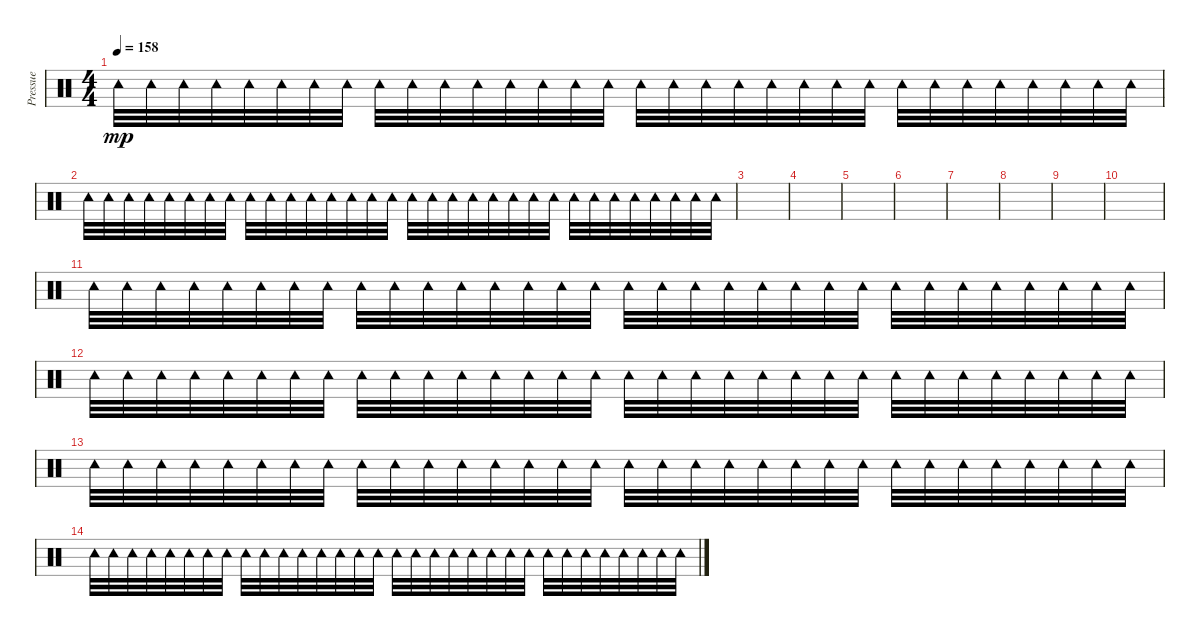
\track ("Pressue" "Pressue") {instrument percussion}
\staff {score}
\articulation defaults
\ts (4 4)
\tempo 158
\clef neutral
\ks c "Tambourine (hit)".32{dy mp} "Tambourine (hit)".32 "Tambourine (hit)".32 "Tambourine (hit)".32 "Tambourine (hit)".32 "Tambourine (hit)".32 "Tambourine (hit)".32 "Tambourine (hit)".32 "Tambourine (hit)".32 "Tambourine (hit)".32 "Tambourine (hit)".32 "Tambourine (hit)".32 "Tambourine (hit)".32 "Tambourine (hit)".32 "Tambourine (hit)".32 "Tambourine (hit)".32 "Tambourine (hit)".32 "Tambourine (hit)".32 "Tambourine (hit)".32 "Tambourine (hit)".32 "Tambourine (hit)".32 "Tambourine (hit)".32 "Tambourine (hit)".32 "Tambourine (hit)".32 "Tambourine (hit)".32 "Tambourine (hit)".32 "Tambourine (hit)".32 "Tambourine (hit)".32 "Tambourine (hit)".32 "Tambourine (hit)".32 "Tambourine (hit)".32 "Tambourine (hit)".32
|
"Tambourine (hit)".32 "Tambourine (hit)".32 "Tambourine (hit)".32 "Tambourine (hit)".32 "Tambourine (hit)".32 "Tambourine (hit)".32 "Tambourine (hit)".32 "Tambourine (hit)".32 "Tambourine (hit)".32 "Tambourine (hit)".32 "Tambourine (hit)".32 "Tambourine (hit)".32 "Tambourine (hit)".32 "Tambourine (hit)".32 "Tambourine (hit)".32 "Tambourine (hit)".32 "Tambourine (hit)".32 "Tambourine (hit)".32 "Tambourine (hit)".32 "Tambourine (hit)".32 "Tambourine (hit)".32 "Tambourine (hit)".32 "Tambourine (hit)".32 "Tambourine (hit)".32 "Tambourine (hit)".32 "Tambourine (hit)".32 "Tambourine (hit)".32 "Tambourine (hit)".32 "Tambourine (hit)".32 "Tambourine (hit)".32 "Tambourine (hit)".32 "Tambourine (hit)".32 |
|
|
|
|
|
|
|
|
"Tambourine (hit)".32 "Tambourine (hit)".32 "Tambourine (hit)".32 "Tambourine (hit)".32 "Tambourine (hit)".32 "Tambourine (hit)".32 "Tambourine (hit)".32 "Tambourine (hit)".32 "Tambourine (hit)".32 "Tambourine (hit)".32 "Tambourine (hit)".32 "Tambourine (hit)".32 "Tambourine (hit)".32 "Tambourine (hit)".32 "Tambourine (hit)".32 "Tambourine (hit)".32 "Tambourine (hit)".32 "Tambourine (hit)".32 "Tambourine (hit)".32 "Tambourine (hit)".32 "Tambourine (hit)".32 "Tambourine (hit)".32 "Tambourine (hit)".32 "Tambourine (hit)".32 "Tambourine (hit)".32 "Tambourine (hit)".32 "Tambourine (hit)".32 "Tambourine (hit)".32 "Tambourine (hit)".32 "Tambourine (hit)".32 "Tambourine (hit)".32 "Tambourine (hit)".32 |
"Tambourine (hit)".32 "Tambourine (hit)".32 "Tambourine (hit)".32 "Tambourine (hit)".32 "Tambourine (hit)".32 "Tambourine (hit)".32 "Tambourine (hit)".32 "Tambourine (hit)".32 "Tambourine (hit)".32 "Tambourine (hit)".32 "Tambourine (hit)".32 "Tambourine (hit)".32 "Tambourine (hit)".32 "Tambourine (hit)".32 "Tambourine (hit)".32 "Tambourine (hit)".32 "Tambourine (hit)".32 "Tambourine (hit)".32 "Tambourine (hit)".32 "Tambourine (hit)".32 "Tambourine (hit)".32 "Tambourine (hit)".32 "Tambourine (hit)".32 "Tambourine (hit)".32 "Tambourine (hit)".32 "Tambourine (hit)".32 "Tambourine (hit)".32 "Tambourine (hit)".32 "Tambourine (hit)".32 "Tambourine (hit)".32 "Tambourine (hit)".32 "Tambourine (hit)".32 |
"Tambourine (hit)".32 "Tambourine (hit)".32 "Tambourine (hit)".32 "Tambourine (hit)".32 "Tambourine (hit)".32 "Tambourine (hit)".32 "Tambourine (hit)".32 "Tambourine (hit)".32 "Tambourine (hit)".32 "Tambourine (hit)".32 "Tambourine (hit)".32 "Tambourine (hit)".32 "Tambourine (hit)".32 "Tambourine (hit)".32 "Tambourine (hit)".32 "Tambourine (hit)".32 "Tambourine (hit)".32 "Tambourine (hit)".32 "Tambourine (hit)".32 "Tambourine (hit)".32 "Tambourine (hit)".32 "Tambourine (hit)".32 "Tambourine (hit)".32 "Tambourine (hit)".32 "Tambourine (hit)".32 "Tambourine (hit)".32 "Tambourine (hit)".32 "Tambourine (hit)".32 "Tambourine (hit)".32 "Tambourine (hit)".32 "Tambourine (hit)".32 "Tambourine (hit)".32 |
"Tambourine (hit)".32 "Tambourine (hit)".32 "Tambourine (hit)".32 "Tambourine (hit)".32 "Tambourine (hit)".32 "Tambourine (hit)".32 "Tambourine (hit)".32 "Tambourine (hit)".32 "Tambourine (hit)".32 "Tambourine (hit)".32 "Tambourine (hit)".32 "Tambourine (hit)".32 "Tambourine (hit)".32 "Tambourine (hit)".32 "Tambourine (hit)".32 "Tambourine (hit)".32 "Tambourine (hit)".32 "Tambourine (hit)".32 "Tambourine (hit)".32 "Tambourine (hit)".32 "Tambourine (hit)".32 "Tambourine (hit)".32 "Tambourine (hit)".32 "Tambourine (hit)".32 "Tambourine (hit)".32 "Tambourine (hit)".32 "Tambourine (hit)".32 "Tambourine (hit)".32 "Tambourine (hit)".32 "Tambourine (hit)".32 "Tambourine (hit)".32 "Tambourine (hit)".32
